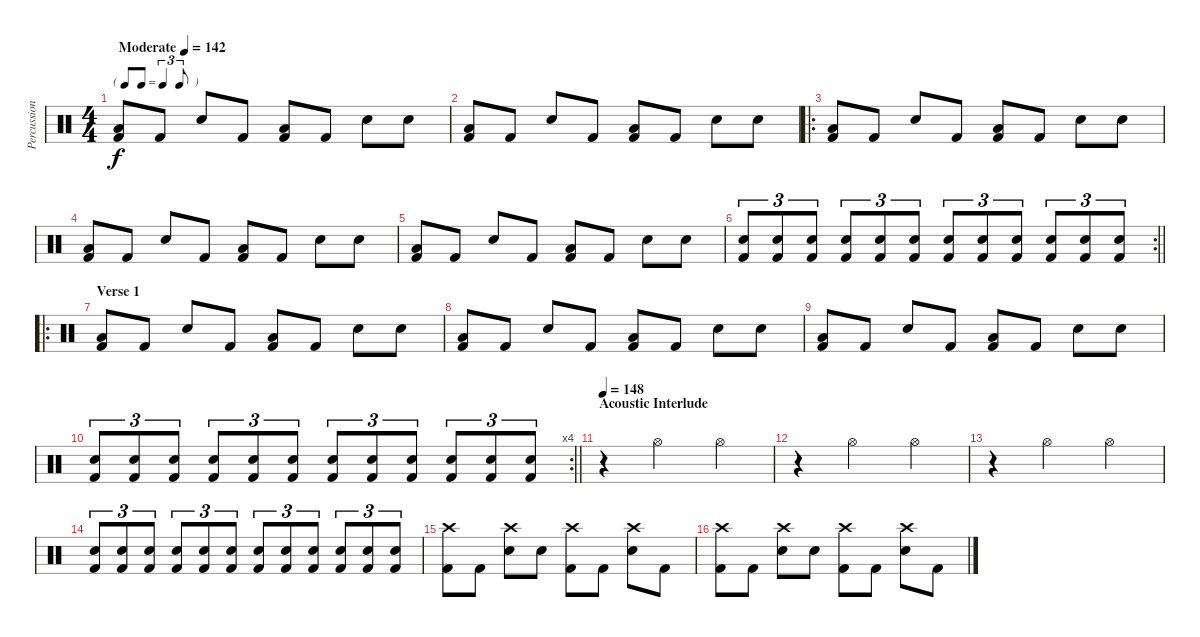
\track ("Percussion" "Percussion") {instrument percussion}
\staff {score}
\articulation defaults
\ts (4 4)
\tf triplet8th
\tempo (142 "Moderate")
\clef neutral
\ks c
("Low Tom (hit)" "Kick (hit) 2").8{dy f} "Kick (hit) 2".8 "Snare (hit) 2".8 "Kick (hit) 2".8 ("Low Tom (hit)" "Kick (hit) 2").8 "Kick (hit) 2".8 "Snare (hit) 2".8 "Snare (hit) 2".8 |
("Low Tom (hit)" "Kick (hit) 2").8 "Kick (hit) 2".8 "Snare (hit) 2".8 "Kick (hit) 2".8 ("Low Tom (hit)" "Kick (hit) 2").8 "Kick (hit) 2".8 "Snare (hit) 2".8 "Snare (hit) 2".8 |
\ro
("Low Tom (hit)" "Kick (hit) 2").8 "Kick (hit) 2".8 "Snare (hit) 2".8 "Kick (hit) 2".8 ("Low Tom (hit)" "Kick (hit) 2").8 "Kick (hit) 2".8 "Snare (hit) 2".8 "Snare (hit) 2".8 |
("Low Tom (hit)" "Kick (hit) 2").8 "Kick (hit) 2".8 "Snare (hit) 2".8 "Kick (hit) 2".8 ("Low Tom (hit)" "Kick (hit) 2").8 "Kick (hit) 2".8 "Snare (hit) 2".8 "Snare (hit) 2".8 |
("Low Tom (hit)" "Kick (hit) 2").8 "Kick (hit) 2".8 "Snare (hit) 2".8 "Kick (hit) 2".8 ("Low Tom (hit)" "Kick (hit) 2").8 "Kick (hit) 2".8 "Snare (hit) 2".8 "Snare (hit) 2".8 |
\rc 2
\barLineRight lightlight
("Snare (hit) 2" "Kick (hit) 2").8{tu (3 2)} ("Snare (hit) 2" "Kick (hit) 2").8{tu (3 2)} ("Snare (hit) 2" "Kick (hit) 2").8{tu (3 2)} ("Snare (hit) 2" "Kick (hit) 2").8{tu (3 2)} ("Snare (hit) 2" "Kick (hit) 2").8{tu (3 2)} ("Snare (hit) 2" "Kick (hit) 2").8{tu (3 2)} ("Snare (hit) 2" "Kick (hit) 2").8{tu (3 2)} ("Snare (hit) 2" "Kick (hit) 2").8{tu (3 2)} ("Snare (hit) 2" "Kick (hit) 2").8{tu (3 2)} ("Snare (hit) 2" "Kick (hit) 2").8{tu (3 2)} ("Snare (hit) 2" "Kick (hit) 2").8{tu (3 2)} ("Snare (hit) 2" "Kick (hit) 2").8{tu (3 2)} |
\ro
\section ("" "Verse 1")
("Low Tom (hit)" "Kick (hit) 2").8 "Kick (hit) 2".8 "Snare (hit) 2".8 "Kick (hit) 2".8 ("Low Tom (hit)" "Kick (hit) 2").8 "Kick (hit) 2".8 "Snare (hit) 2".8 "Snare (hit) 2".8 |
("Low Tom (hit)" "Kick (hit) 2").8 "Kick (hit) 2".8 "Snare (hit) 2".8 "Kick (hit) 2".8 ("Low Tom (hit)" "Kick (hit) 2").8 "Kick (hit) 2".8 "Snare (hit) 2".8 "Snare (hit) 2".8 |
("Low Tom (hit)" "Kick (hit) 2").8 "Kick (hit) 2".8 "Snare (hit) 2".8 "Kick (hit) 2".8 ("Low Tom (hit)" "Kick (hit) 2").8 "Kick (hit) 2".8 "Snare (hit) 2".8 "Snare (hit) 2".8 |
\rc 4
\barLineRight lightlight
("Snare (hit) 2" "Kick (hit) 2").8{tu (3 2)} ("Snare (hit) 2" "Kick (hit) 2").8{tu (3 2)} ("Snare (hit) 2" "Kick (hit) 2").8{tu (3 2)} ("Snare (hit) 2" "Kick (hit) 2").8{tu (3 2)} ("Snare (hit) 2" "Kick (hit) 2").8{tu (3 2)} ("Snare (hit) 2" "Kick (hit) 2").8{tu (3 2)} ("Snare (hit) 2" "Kick (hit) 2").8{tu (3 2)} ("Snare (hit) 2" "Kick (hit) 2").8{tu (3 2)} ("Snare (hit) 2" "Kick (hit) 2").8{tu (3 2)} ("Snare (hit) 2" "Kick (hit) 2").8{tu (3 2)} ("Snare (hit) 2" "Kick (hit) 2").8{tu (3 2)} ("Snare (hit) 2" "Kick (hit) 2").8{tu (3 2)} |
\section ("" "Acoustic Interlude")
\tempo 148
r.4 "Hi-Hat (open)".2 "Hi-Hat (open)".4 |
r.4 "Hi-Hat (open)".2 "Hi-Hat (open)".4 |
r.4 "Hi-Hat (open)".2 "Hi-Hat (open)".4 |
("Snare (hit) 2" "Kick (hit) 2").8{tu (3 2)} ("Snare (hit) 2" "Kick (hit) 2").8{tu (3 2)} ("Snare (hit) 2" "Kick (hit) 2").8{tu (3 2)} ("Snare (hit) 2" "Kick (hit) 2").8{tu (3 2)} ("Snare (hit) 2" "Kick (hit) 2").8{tu (3 2)} ("Snare (hit) 2" "Kick (hit) 2").8{tu (3 2)} ("Snare (hit) 2" "Kick (hit) 2").8{tu (3 2)} ("Snare (hit) 2" "Kick (hit) 2").8{tu (3 2)} ("Snare (hit) 2" "Kick (hit) 2").8{tu (3 2)} ("Snare (hit) 2" "Kick (hit) 2").8{tu (3 2)} ("Snare (hit) 2" "Kick (hit) 2").8{tu (3 2)} ("Snare (hit) 2" "Kick (hit) 2").8{tu (3 2)} |
("Crash high (hit)" "Kick (hit) 2").8 "Kick (hit) 2".8 ("Crash high (hit)" "Snare (hit) 2").8 "Snare (hit) 2".8 ("Crash high (hit)" "Kick (hit) 2").8 "Kick (hit) 2".8 ("Crash high (hit)" "Snare (hit) 2").8 "Kick (hit) 2".8 |
("Crash high (hit)" "Kick (hit) 2").8 "Kick (hit) 2".8 ("Crash high (hit)" "Snare (hit) 2").8 "Snare (hit) 2".8 ("Crash high (hit)" "Kick (hit) 2").8 "Kick (hit) 2".8 ("Crash high (hit)" "Snare (hit) 2").8 "Kick (hit) 2".8
